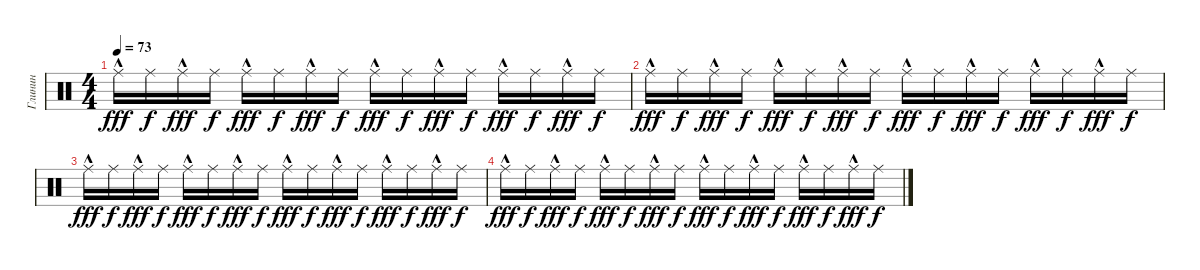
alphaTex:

\track ("Глинин" "Глинин") {instrument percussion}
\staff {score}
\articulation defaults
\ts (4 4)
\tempo 73
\clef neutral
\ks c "Ride (middle)"{hac}.16{dy fff} "Ride (middle)".16{dy f} "Ride (middle)"{hac}.16{dy fff} "Ride (middle)".16{dy f} "Ride (middle)"{hac}.16{dy fff} "Ride (middle)".16{dy f} "Ride (middle)"{hac}.16{dy fff} "Ride (middle)".16{dy f} "Ride (middle)"{hac}.16{dy fff} "Ride (middle)".16{dy f} "Ride (middle)"{hac}.16{dy fff} "Ride (middle)".16{dy f} "Ride (middle)"{hac}.16{dy fff} "Ride (middle)".16{dy f} "Ride (middle)"{hac}.16{dy fff} "Ride (middle)".16{dy f}
|
"Ride (middle)"{hac}.16{dy fff} "Ride (middle)".16{dy f} "Ride (middle)"{hac}.16{dy fff} "Ride (middle)".16{dy f} "Ride (middle)"{hac}.16{dy fff} "Ride (middle)".16{dy f} "Ride (middle)"{hac}.16{dy fff} "Ride (middle)".16{dy f} "Ride (middle)"{hac}.16{dy fff} "Ride (middle)".16{dy f} "Ride (middle)"{hac}.16{dy fff} "Ride (middle)".16{dy f} "Ride (middle)"{hac}.16{dy fff} "Ride (middle)".16{dy f} "Ride (middle)"{hac}.16{dy fff} "Ride (middle)".16{dy f} |
"Ride (middle)"{hac}.16{dy fff} "Ride (middle)".16{dy f} "Ride (middle)"{hac}.16{dy fff} "Ride (middle)".16{dy f} "Ride (middle)"{hac}.16{dy fff} "Ride (middle)".16{dy f} "Ride (middle)"{hac}.16{dy fff} "Ride (middle)".16{dy f} "Ride (middle)"{hac}.16{dy fff} "Ride (middle)".16{dy f} "Ride (middle)"{hac}.16{dy fff} "Ride (middle)".16{dy f} "Ride (middle)"{hac}.16{dy fff} "Ride (middle)".16{dy f} "Ride (middle)"{hac}.16{dy fff} "Ride (middle)".16{dy f} |
"Ride (middle)"{hac}.16{dy fff} "Ride (middle)".16{dy f} "Ride (middle)"{hac}.16{dy fff} "Ride (middle)".16{dy f} "Ride (middle)"{hac}.16{dy fff} "Ride (middle)".16{dy f} "Ride (middle)"{hac}.16{dy fff} "Ride (middle)".16{dy f} "Ride (middle)"{hac}.16{dy fff} "Ride (middle)".16{dy f} "Ride (middle)"{hac}.16{dy fff} "Ride (middle)".16{dy f} "Ride (middle)"{hac}.16{dy fff} "Ride (middle)".16{dy f} "Ride (middle)"{hac}.16{dy fff} "Ride (middle)".16{dy f}
